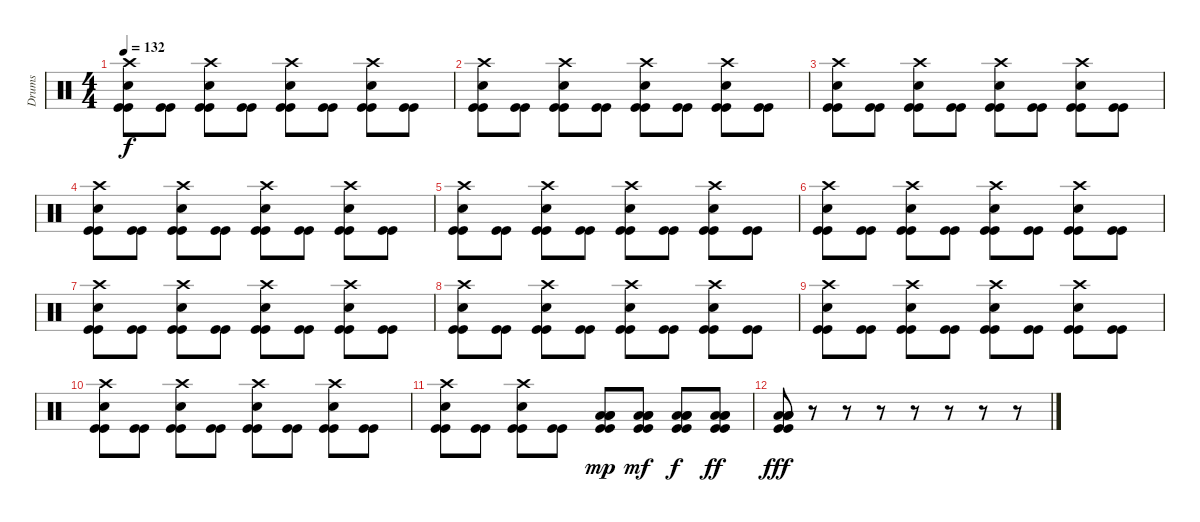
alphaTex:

\track ("Drums" "Drums") {instrument percussion}
\staff {score}
\articulation defaults
\ts (4 4)
\tempo 132
\clef neutral
\ks c
("Crash high (hit)" "Electric Snare (hit)" "Kick (hit)" "Kick (hit)").8{dy f} ("Kick (hit)" "Kick (hit)").8 ("Crash high (hit)" "Electric Snare (hit)" "Kick (hit)" "Kick (hit)").8 ("Kick (hit)" "Kick (hit)").8 ("Crash high (hit)" "Electric Snare (hit)" "Kick (hit)" "Kick (hit)").8 ("Kick (hit)" "Kick (hit)").8 ("Crash high (hit)" "Electric Snare (hit)" "Kick (hit)" "Kick (hit)").8 ("Kick (hit)" "Kick (hit)").8 |
("Crash high (hit)" "Electric Snare (hit)" "Kick (hit)" "Kick (hit)").8 ("Kick (hit)" "Kick (hit)").8 ("Crash high (hit)" "Electric Snare (hit)" "Kick (hit)" "Kick (hit)").8 ("Kick (hit)" "Kick (hit)").8 ("Crash high (hit)" "Electric Snare (hit)" "Kick (hit)" "Kick (hit)").8 ("Kick (hit)" "Kick (hit)").8 ("Crash high (hit)" "Electric Snare (hit)" "Kick (hit)" "Kick (hit)").8 ("Kick (hit)" "Kick (hit)").8 |
("Crash high (hit)" "Electric Snare (hit)" "Kick (hit)" "Kick (hit)").8 ("Kick (hit)" "Kick (hit)").8 ("Crash high (hit)" "Electric Snare (hit)" "Kick (hit)" "Kick (hit)").8 ("Kick (hit)" "Kick (hit)").8 ("Crash high (hit)" "Electric Snare (hit)" "Kick (hit)" "Kick (hit)").8 ("Kick (hit)" "Kick (hit)").8 ("Crash high (hit)" "Electric Snare (hit)" "Kick (hit)" "Kick (hit)").8 ("Kick (hit)" "Kick (hit)").8 |
("Crash high (hit)" "Electric Snare (hit)" "Kick (hit)" "Kick (hit)").8 ("Kick (hit)" "Kick (hit)").8 ("Crash high (hit)" "Electric Snare (hit)" "Kick (hit)" "Kick (hit)").8 ("Kick (hit)" "Kick (hit)").8 ("Crash high (hit)" "Electric Snare (hit)" "Kick (hit)" "Kick (hit)").8 ("Kick (hit)" "Kick (hit)").8 ("Crash high (hit)" "Electric Snare (hit)" "Kick (hit)" "Kick (hit)").8 ("Kick (hit)" "Kick (hit)").8 |
("Crash high (hit)" "Electric Snare (hit)" "Kick (hit)" "Kick (hit)").8 ("Kick (hit)" "Kick (hit)").8 ("Crash high (hit)" "Electric Snare (hit)" "Kick (hit)" "Kick (hit)").8 ("Kick (hit)" "Kick (hit)").8 ("Crash high (hit)" "Electric Snare (hit)" "Kick (hit)" "Kick (hit)").8 ("Kick (hit)" "Kick (hit)").8 ("Crash high (hit)" "Electric Snare (hit)" "Kick (hit)" "Kick (hit)").8 ("Kick (hit)" "Kick (hit)").8 |
("Crash high (hit)" "Electric Snare (hit)" "Kick (hit)" "Kick (hit)").8 ("Kick (hit)" "Kick (hit)").8 ("Crash high (hit)" "Electric Snare (hit)" "Kick (hit)" "Kick (hit)").8 ("Kick (hit)" "Kick (hit)").8 ("Crash high (hit)" "Electric Snare (hit)" "Kick (hit)" "Kick (hit)").8 ("Kick (hit)" "Kick (hit)").8 ("Crash high (hit)" "Electric Snare (hit)" "Kick (hit)" "Kick (hit)").8 ("Kick (hit)" "Kick (hit)").8 |
("Crash high (hit)" "Electric Snare (hit)" "Kick (hit)" "Kick (hit)").8 ("Kick (hit)" "Kick (hit)").8 ("Crash high (hit)" "Electric Snare (hit)" "Kick (hit)" "Kick (hit)").8 ("Kick (hit)" "Kick (hit)").8 ("Crash high (hit)" "Electric Snare (hit)" "Kick (hit)" "Kick (hit)").8 ("Kick (hit)" "Kick (hit)").8 ("Crash high (hit)" "Electric Snare (hit)" "Kick (hit)" "Kick (hit)").8 ("Kick (hit)" "Kick (hit)").8 |
("Crash high (hit)" "Electric Snare (hit)" "Kick (hit)" "Kick (hit)").8 ("Kick (hit)" "Kick (hit)").8 ("Crash high (hit)" "Electric Snare (hit)" "Kick (hit)" "Kick (hit)").8 ("Kick (hit)" "Kick (hit)").8 ("Crash high (hit)" "Electric Snare (hit)" "Kick (hit)" "Kick (hit)").8 ("Kick (hit)" "Kick (hit)").8 ("Crash high (hit)" "Electric Snare (hit)" "Kick (hit)" "Kick (hit)").8 ("Kick (hit)" "Kick (hit)").8 |
("Crash high (hit)" "Electric Snare (hit)" "Kick (hit)" "Kick (hit)").8 ("Kick (hit)" "Kick (hit)").8 ("Crash high (hit)" "Electric Snare (hit)" "Kick (hit)" "Kick (hit)").8 ("Kick (hit)" "Kick (hit)").8 ("Crash high (hit)" "Electric Snare (hit)" "Kick (hit)" "Kick (hit)").8 ("Kick (hit)" "Kick (hit)").8 ("Crash high (hit)" "Electric Snare (hit)" "Kick (hit)" "Kick (hit)").8 ("Kick (hit)" "Kick (hit)").8 |
("Crash high (hit)" "Electric Snare (hit)" "Kick (hit)" "Kick (hit)").8 ("Kick (hit)" "Kick (hit)").8 ("Crash high (hit)" "Electric Snare (hit)" "Kick (hit)" "Kick (hit)").8 ("Kick (hit)" "Kick (hit)").8 ("Crash high (hit)" "Electric Snare (hit)" "Kick (hit)" "Kick (hit)").8 ("Kick (hit)" "Kick (hit)").8 ("Crash high (hit)" "Electric Snare (hit)" "Kick (hit)" "Kick (hit)").8 ("Kick (hit)" "Kick (hit)").8 |
("Crash high (hit)" "Electric Snare (hit)" "Kick (hit)" "Kick (hit)").8 ("Kick (hit)" "Kick (hit)").8 ("Crash high (hit)" "Electric Snare (hit)" "Kick (hit)" "Kick (hit)").8 ("Kick (hit)" "Kick (hit)").8 ("Low Tom (hit)" "Low Tom (hit)" "Low Tom (hit)" "Kick (hit)" "Kick (hit)").8{dy mp} ("Low Tom (hit)" "Low Tom (hit)" "Low Tom (hit)" "Kick (hit)" "Kick (hit)").8{dy mf} ("Low Tom (hit)" "Low Tom (hit)" "Low Tom (hit)" "Kick (hit)" "Kick (hit)").8{dy f} ("Low Tom (hit)" "Low Tom (hit)" "Low Tom (hit)" "Kick (hit)" "Kick (hit)").8{dy ff} |
("Low Tom (hit)" "Low Tom (hit)" "Low Tom (hit)" "Kick (hit)" "Kick (hit)").8{dy fff} r.8 r.8 r.8 r.8 r.8 r.8 r.8
